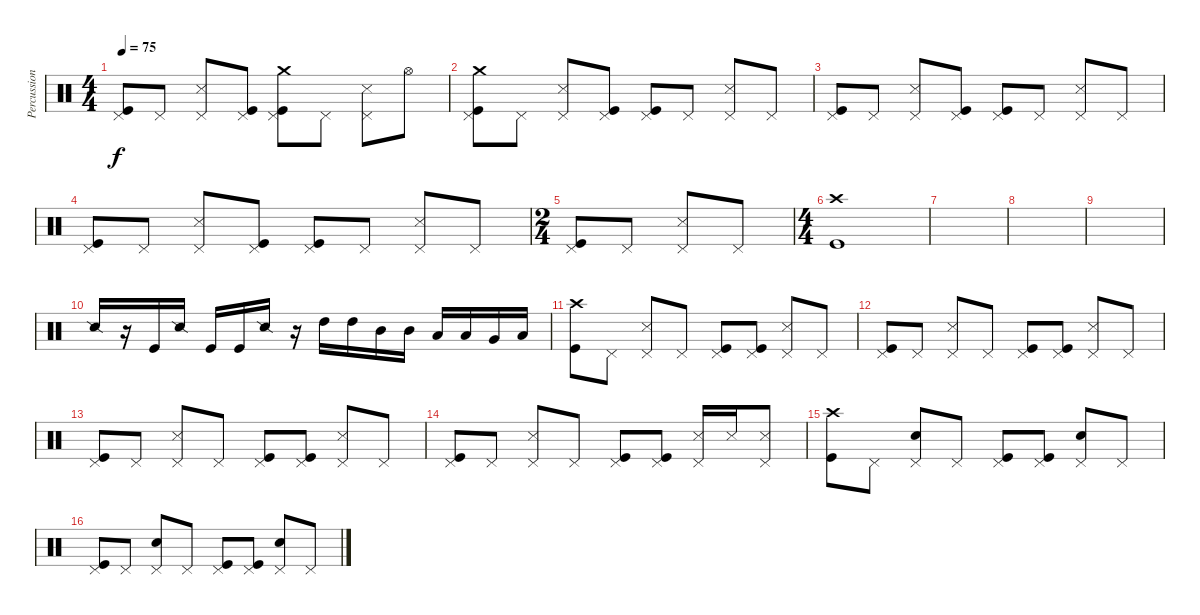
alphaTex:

\track ("Percussion" "Percussion") {instrument percussion}
\staff {score}
\articulation defaults
\ts (4 4)
\tempo 75
\clef neutral
\ks c
("Kick (hit)" "Pedal Hi-Hat (hit)").8{dy f} "Pedal Hi-Hat (hit)".8 ("Snare (side stick) 3" "Pedal Hi-Hat (hit)").8 ("Kick (hit)" "Pedal Hi-Hat (hit)").8 ("Kick (hit)" "Pedal Hi-Hat (hit)" "Crash medium (hit)").8 "Pedal Hi-Hat (hit)".8 ("Snare (side stick) 3" "Pedal Hi-Hat (hit)").8 "Hi-Hat (open)".8 |
("Kick (hit)" "Pedal Hi-Hat (hit)" "Crash medium (hit)").8 "Pedal Hi-Hat (hit)".8 ("Snare (side stick) 3" "Pedal Hi-Hat (hit)").8 ("Kick (hit)" "Pedal Hi-Hat (hit)").8 ("Kick (hit)" "Pedal Hi-Hat (hit)").8 "Pedal Hi-Hat (hit)".8 ("Snare (side stick) 3" "Pedal Hi-Hat (hit)").8 "Pedal Hi-Hat (hit)".8 |
("Kick (hit)" "Pedal Hi-Hat (hit)").8 "Pedal Hi-Hat (hit)".8 ("Snare (side stick) 3" "Pedal Hi-Hat (hit)").8 ("Kick (hit)" "Pedal Hi-Hat (hit)").8 ("Kick (hit)" "Pedal Hi-Hat (hit)").8 "Pedal Hi-Hat (hit)".8 ("Snare (side stick) 3" "Pedal Hi-Hat (hit)").8 "Pedal Hi-Hat (hit)".8 |
("Kick (hit)" "Pedal Hi-Hat (hit)").8 "Pedal Hi-Hat (hit)".8 ("Snare (side stick) 3" "Pedal Hi-Hat (hit)").8 ("Kick (hit)" "Pedal Hi-Hat (hit)").8 ("Kick (hit)" "Pedal Hi-Hat (hit)").8 "Pedal Hi-Hat (hit)".8 ("Snare (side stick) 3" "Pedal Hi-Hat (hit)").8 "Pedal Hi-Hat (hit)".8 |
\ts (2 4)
("Kick (hit)" "Pedal Hi-Hat (hit)").8 "Pedal Hi-Hat (hit)".8 ("Snare (side stick) 3" "Pedal Hi-Hat (hit)").8 "Pedal Hi-Hat (hit)".8 |
\ts (4 4)
("Kick (hit)" "Crash high (hit)").1 |
|
|
|
"Snare (side stick) 2".16 r.16 "Kick (hit)".16 "Snare (side stick) 2".16 "Kick (hit)".16 "Kick (hit)".16 "Snare (side stick) 2".16 r.16 "High Tom (hit)".16 "High Tom (hit)".16 "Mid Tom (hit)".16 "Mid Tom (hit)".16 "Low Tom (hit)".16 "Low Tom (hit)".16 "Very Low Tom (hit)".16 "Low Floor Tom (hit)".16 |
("Kick (hit)" "Crash high (hit)").8 "Pedal Hi-Hat (hit)".8 ("Snare (side stick) 3" "Pedal Hi-Hat (hit)").8 "Pedal Hi-Hat (hit)".8 ("Kick (hit)" "Pedal Hi-Hat (hit)").8 ("Kick (hit)" "Pedal Hi-Hat (hit)").8 ("Snare (side stick) 3" "Pedal Hi-Hat (hit)").8 "Pedal Hi-Hat (hit)".8 |
("Kick (hit)" "Pedal Hi-Hat (hit)").8 "Pedal Hi-Hat (hit)".8 ("Snare (side stick) 3" "Pedal Hi-Hat (hit)").8 "Pedal Hi-Hat (hit)".8 ("Kick (hit)" "Pedal Hi-Hat (hit)").8 ("Kick (hit)" "Pedal Hi-Hat (hit)").8 ("Snare (side stick) 3" "Pedal Hi-Hat (hit)").8 "Pedal Hi-Hat (hit)".8 |
("Kick (hit)" "Pedal Hi-Hat (hit)").8 "Pedal Hi-Hat (hit)".8 ("Snare (side stick) 3" "Pedal Hi-Hat (hit)").8 "Pedal Hi-Hat (hit)".8 ("Kick (hit)" "Pedal Hi-Hat (hit)").8 ("Kick (hit)" "Pedal Hi-Hat (hit)").8 ("Snare (side stick) 3" "Pedal Hi-Hat (hit)").8 "Pedal Hi-Hat (hit)".8 |
("Kick (hit)" "Pedal Hi-Hat (hit)").8 "Pedal Hi-Hat (hit)".8 ("Snare (side stick) 3" "Pedal Hi-Hat (hit)").8 "Pedal Hi-Hat (hit)".8 ("Kick (hit)" "Pedal Hi-Hat (hit)").8 ("Kick (hit)" "Pedal Hi-Hat (hit)").8 ("Snare (side stick) 3" "Pedal Hi-Hat (hit)").16 "Snare (side stick) 3".16 ("Snare (side stick) 3" "Pedal Hi-Hat (hit)").8 |
("Kick (hit)" "Crash high (hit)").8 "Pedal Hi-Hat (hit)".8 ("Snare (hit) 2" "Pedal Hi-Hat (hit)").8 "Pedal Hi-Hat (hit)".8 ("Kick (hit)" "Pedal Hi-Hat (hit)").8 ("Kick (hit)" "Pedal Hi-Hat (hit)").8 ("Snare (hit) 2" "Pedal Hi-Hat (hit)").8 "Pedal Hi-Hat (hit)".8 |
("Kick (hit)" "Pedal Hi-Hat (hit)").8 "Pedal Hi-Hat (hit)".8 ("Snare (hit) 2" "Pedal Hi-Hat (hit)").8 "Pedal Hi-Hat (hit)".8 ("Kick (hit)" "Pedal Hi-Hat (hit)").8 ("Kick (hit)" "Pedal Hi-Hat (hit)").8 ("Snare (hit) 2" "Pedal Hi-Hat (hit)").8 "Pedal Hi-Hat (hit)".8
